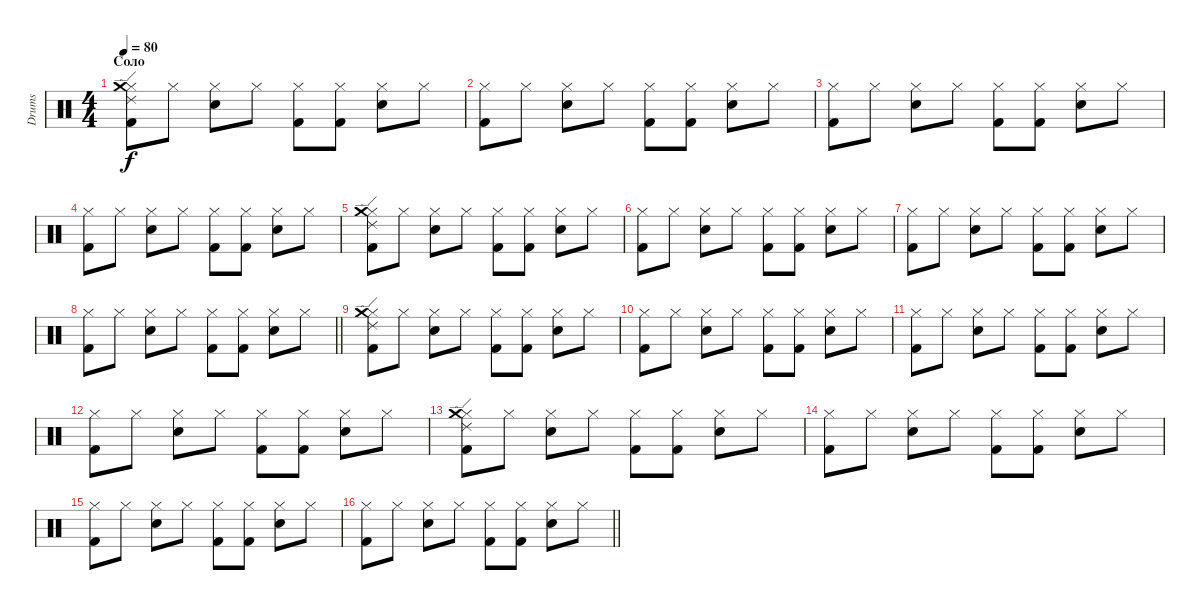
\track ("Drums" "Drums") {instrument percussion}
\staff {score}
\articulation defaults
\ts (4 4)
\section ("" "Соло")
\tempo 80
\clef neutral
\ks c
("Hi-Hat (closed)" "Kick (hit) 2" "Crash medium (hit)" "Ride (edge) 2").8{dy f} "Hi-Hat (closed)".8 ("Hi-Hat (closed)" "Snare (hit) 2").8 "Hi-Hat (closed)".8 ("Hi-Hat (closed)" "Kick (hit) 2").8 ("Hi-Hat (closed)" "Kick (hit) 2").8 ("Hi-Hat (closed)" "Snare (hit) 2").8 "Hi-Hat (closed)".8 |
("Hi-Hat (closed)" "Kick (hit) 2").8 "Hi-Hat (closed)".8 ("Hi-Hat (closed)" "Snare (hit) 2").8 "Hi-Hat (closed)".8 ("Hi-Hat (closed)" "Kick (hit) 2").8 ("Hi-Hat (closed)" "Kick (hit) 2").8 ("Hi-Hat (closed)" "Snare (hit) 2").8 "Hi-Hat (closed)".8 |
("Hi-Hat (closed)" "Kick (hit) 2").8 "Hi-Hat (closed)".8 ("Hi-Hat (closed)" "Snare (hit) 2").8 "Hi-Hat (closed)".8 ("Hi-Hat (closed)" "Kick (hit) 2").8 ("Hi-Hat (closed)" "Kick (hit) 2").8 ("Hi-Hat (closed)" "Snare (hit) 2").8 "Hi-Hat (closed)".8 |
("Hi-Hat (closed)" "Kick (hit) 2").8 "Hi-Hat (closed)".8 ("Hi-Hat (closed)" "Snare (hit) 2").8 "Hi-Hat (closed)".8 ("Hi-Hat (closed)" "Kick (hit) 2").8 ("Hi-Hat (closed)" "Kick (hit) 2").8 ("Hi-Hat (closed)" "Snare (hit) 2").8 "Hi-Hat (closed)".8 |
("Hi-Hat (closed)" "Kick (hit) 2" "Crash medium (hit)" "Ride (edge) 2").8 "Hi-Hat (closed)".8 ("Hi-Hat (closed)" "Snare (hit) 2").8 "Hi-Hat (closed)".8 ("Hi-Hat (closed)" "Kick (hit) 2").8 ("Hi-Hat (closed)" "Kick (hit) 2").8 ("Hi-Hat (closed)" "Snare (hit) 2").8 "Hi-Hat (closed)".8 |
("Hi-Hat (closed)" "Kick (hit) 2").8 "Hi-Hat (closed)".8 ("Hi-Hat (closed)" "Snare (hit) 2").8 "Hi-Hat (closed)".8 ("Hi-Hat (closed)" "Kick (hit) 2").8 ("Hi-Hat (closed)" "Kick (hit) 2").8 ("Hi-Hat (closed)" "Snare (hit) 2").8 "Hi-Hat (closed)".8 |
("Hi-Hat (closed)" "Kick (hit) 2").8 "Hi-Hat (closed)".8 ("Hi-Hat (closed)" "Snare (hit) 2").8 "Hi-Hat (closed)".8 ("Hi-Hat (closed)" "Kick (hit) 2").8 ("Hi-Hat (closed)" "Kick (hit) 2").8 ("Hi-Hat (closed)" "Snare (hit) 2").8 "Hi-Hat (closed)".8 |
\barLineRight lightlight
("Hi-Hat (closed)" "Kick (hit) 2").8 "Hi-Hat (closed)".8 ("Hi-Hat (closed)" "Snare (hit) 2").8 "Hi-Hat (closed)".8 ("Hi-Hat (closed)" "Kick (hit) 2").8 ("Hi-Hat (closed)" "Kick (hit) 2").8 ("Hi-Hat (closed)" "Snare (hit) 2").8 "Hi-Hat (closed)".8 |
("Hi-Hat (closed)" "Kick (hit) 2" "Crash medium (hit)" "Ride (edge) 2").8 "Hi-Hat (closed)".8 ("Hi-Hat (closed)" "Snare (hit) 2").8 "Hi-Hat (closed)".8 ("Hi-Hat (closed)" "Kick (hit) 2").8 ("Hi-Hat (closed)" "Kick (hit) 2").8 ("Hi-Hat (closed)" "Snare (hit) 2").8 "Hi-Hat (closed)".8 |
("Hi-Hat (closed)" "Kick (hit) 2").8 "Hi-Hat (closed)".8 ("Hi-Hat (closed)" "Snare (hit) 2").8 "Hi-Hat (closed)".8 ("Hi-Hat (closed)" "Kick (hit) 2").8 ("Hi-Hat (closed)" "Kick (hit) 2").8 ("Hi-Hat (closed)" "Snare (hit) 2").8 "Hi-Hat (closed)".8 |
("Hi-Hat (closed)" "Kick (hit) 2").8 "Hi-Hat (closed)".8 ("Hi-Hat (closed)" "Snare (hit) 2").8 "Hi-Hat (closed)".8 ("Hi-Hat (closed)" "Kick (hit) 2").8 ("Hi-Hat (closed)" "Kick (hit) 2").8 ("Hi-Hat (closed)" "Snare (hit) 2").8 "Hi-Hat (closed)".8 |
("Hi-Hat (closed)" "Kick (hit) 2").8 "Hi-Hat (closed)".8 ("Hi-Hat (closed)" "Snare (hit) 2").8 "Hi-Hat (closed)".8 ("Hi-Hat (closed)" "Kick (hit) 2").8 ("Hi-Hat (closed)" "Kick (hit) 2").8 ("Hi-Hat (closed)" "Snare (hit) 2").8 "Hi-Hat (closed)".8 |
("Hi-Hat (closed)" "Kick (hit) 2" "Crash medium (hit)" "Ride (edge) 2").8 "Hi-Hat (closed)".8 ("Hi-Hat (closed)" "Snare (hit) 2").8 "Hi-Hat (closed)".8 ("Hi-Hat (closed)" "Kick (hit) 2").8 ("Hi-Hat (closed)" "Kick (hit) 2").8 ("Hi-Hat (closed)" "Snare (hit) 2").8 "Hi-Hat (closed)".8 |
("Hi-Hat (closed)" "Kick (hit) 2").8 "Hi-Hat (closed)".8 ("Hi-Hat (closed)" "Snare (hit) 2").8 "Hi-Hat (closed)".8 ("Hi-Hat (closed)" "Kick (hit) 2").8 ("Hi-Hat (closed)" "Kick (hit) 2").8 ("Hi-Hat (closed)" "Snare (hit) 2").8 "Hi-Hat (closed)".8 |
("Hi-Hat (closed)" "Kick (hit) 2").8 "Hi-Hat (closed)".8 ("Hi-Hat (closed)" "Snare (hit) 2").8 "Hi-Hat (closed)".8 ("Hi-Hat (closed)" "Kick (hit) 2").8 ("Hi-Hat (closed)" "Kick (hit) 2").8 ("Hi-Hat (closed)" "Snare (hit) 2").8 "Hi-Hat (closed)".8 |
\barLineRight lightlight
("Hi-Hat (closed)" "Kick (hit) 2").8 "Hi-Hat (closed)".8 ("Hi-Hat (closed)" "Snare (hit) 2").8 "Hi-Hat (closed)".8 ("Hi-Hat (closed)" "Kick (hit) 2").8 ("Hi-Hat (closed)" "Kick (hit) 2").8 ("Hi-Hat (closed)" "Snare (hit) 2").8 "Hi-Hat (closed)".8
